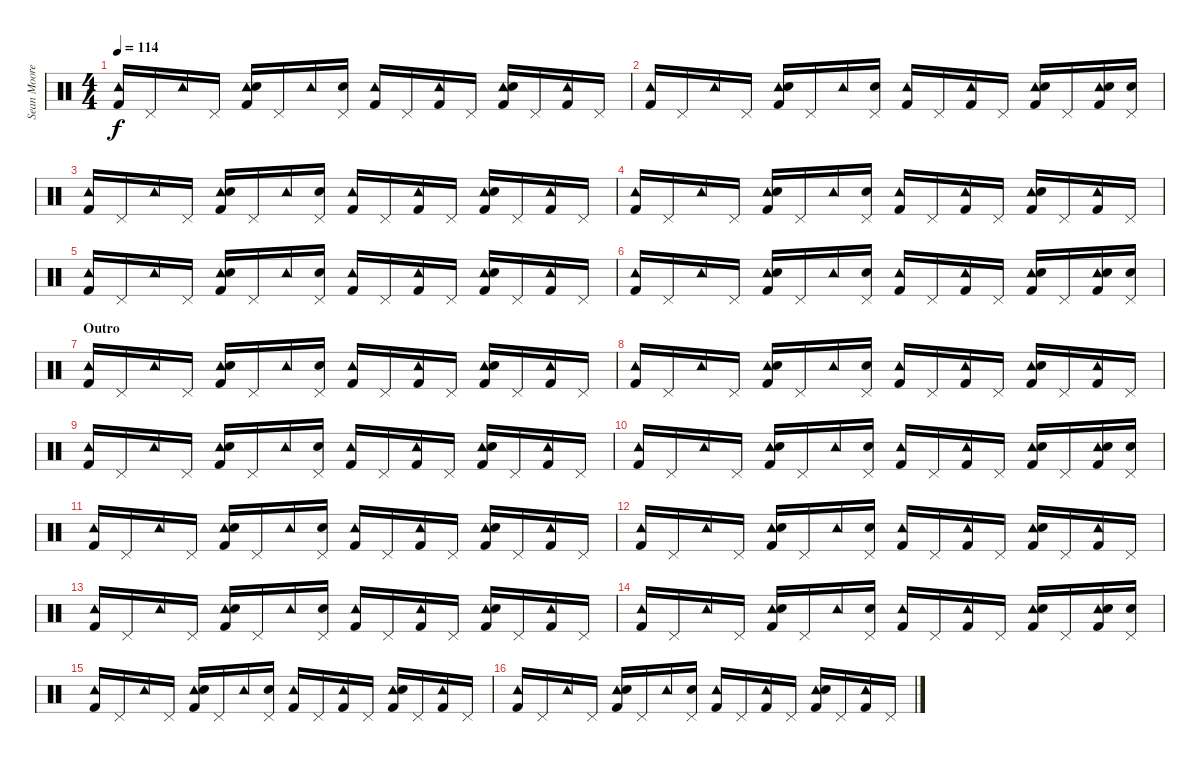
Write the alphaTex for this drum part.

\track ("Sean Moore" "Sean Moore") {instrument percussion}
\staff {score}
\articulation defaults
\ts (4 4)
\tempo 114
\clef neutral
\ks c
("Tambourine (hit)" "Kick (hit) 2").16{dy f} "Pedal Hi-Hat (hit)".16 "Tambourine (hit)".16 "Pedal Hi-Hat (hit)".16 ("Tambourine (hit)" "Snare (hit) 2" "Kick (hit) 2").16 "Pedal Hi-Hat (hit)".16 "Tambourine (hit)".16 ("Snare (hit) 2" "Pedal Hi-Hat (hit)").16 ("Tambourine (hit)" "Kick (hit) 2").16 "Pedal Hi-Hat (hit)".16 ("Tambourine (hit)" "Kick (hit) 2").16 "Pedal Hi-Hat (hit)".16 ("Tambourine (hit)" "Snare (hit) 2" "Kick (hit) 2").16 "Pedal Hi-Hat (hit)".16 ("Tambourine (hit)" "Kick (hit) 2").16 "Pedal Hi-Hat (hit)".16 |
("Tambourine (hit)" "Kick (hit) 2").16 "Pedal Hi-Hat (hit)".16 "Tambourine (hit)".16 "Pedal Hi-Hat (hit)".16 ("Tambourine (hit)" "Snare (hit) 2" "Kick (hit) 2").16 "Pedal Hi-Hat (hit)".16 "Tambourine (hit)".16 ("Snare (hit) 2" "Pedal Hi-Hat (hit)").16 ("Tambourine (hit)" "Kick (hit) 2").16 "Pedal Hi-Hat (hit)".16 ("Tambourine (hit)" "Kick (hit) 2").16 "Pedal Hi-Hat (hit)".16 ("Tambourine (hit)" "Snare (hit) 2" "Kick (hit) 2").16 "Pedal Hi-Hat (hit)".16 ("Tambourine (hit)" "Snare (hit) 2" "Kick (hit) 2").16 ("Snare (hit) 2" "Pedal Hi-Hat (hit)").16 |
("Tambourine (hit)" "Kick (hit) 2").16 "Pedal Hi-Hat (hit)".16 "Tambourine (hit)".16 "Pedal Hi-Hat (hit)".16 ("Tambourine (hit)" "Snare (hit) 2" "Kick (hit) 2").16 "Pedal Hi-Hat (hit)".16 "Tambourine (hit)".16 ("Snare (hit) 2" "Pedal Hi-Hat (hit)").16 ("Tambourine (hit)" "Kick (hit) 2").16 "Pedal Hi-Hat (hit)".16 ("Tambourine (hit)" "Kick (hit) 2").16 "Pedal Hi-Hat (hit)".16 ("Tambourine (hit)" "Snare (hit) 2" "Kick (hit) 2").16 "Pedal Hi-Hat (hit)".16 ("Tambourine (hit)" "Kick (hit) 2").16 "Pedal Hi-Hat (hit)".16 |
("Tambourine (hit)" "Kick (hit) 2").16 "Pedal Hi-Hat (hit)".16 "Tambourine (hit)".16 "Pedal Hi-Hat (hit)".16 ("Tambourine (hit)" "Snare (hit) 2" "Kick (hit) 2").16 "Pedal Hi-Hat (hit)".16 "Tambourine (hit)".16 ("Snare (hit) 2" "Pedal Hi-Hat (hit)").16 ("Tambourine (hit)" "Kick (hit) 2").16 "Pedal Hi-Hat (hit)".16 ("Tambourine (hit)" "Kick (hit) 2").16 "Pedal Hi-Hat (hit)".16 ("Tambourine (hit)" "Snare (hit) 2" "Kick (hit) 2").16 "Pedal Hi-Hat (hit)".16 ("Tambourine (hit)" "Kick (hit) 2").16 "Pedal Hi-Hat (hit)".16 |
("Tambourine (hit)" "Kick (hit) 2").16 "Pedal Hi-Hat (hit)".16 "Tambourine (hit)".16 "Pedal Hi-Hat (hit)".16 ("Tambourine (hit)" "Snare (hit) 2" "Kick (hit) 2").16 "Pedal Hi-Hat (hit)".16 "Tambourine (hit)".16 ("Snare (hit) 2" "Pedal Hi-Hat (hit)").16 ("Tambourine (hit)" "Kick (hit) 2").16 "Pedal Hi-Hat (hit)".16 ("Tambourine (hit)" "Kick (hit) 2").16 "Pedal Hi-Hat (hit)".16 ("Tambourine (hit)" "Snare (hit) 2" "Kick (hit) 2").16 "Pedal Hi-Hat (hit)".16 ("Tambourine (hit)" "Kick (hit) 2").16 "Pedal Hi-Hat (hit)".16 |
("Tambourine (hit)" "Kick (hit) 2").16 "Pedal Hi-Hat (hit)".16 "Tambourine (hit)".16 "Pedal Hi-Hat (hit)".16 ("Tambourine (hit)" "Snare (hit) 2" "Kick (hit) 2").16 "Pedal Hi-Hat (hit)".16 "Tambourine (hit)".16 ("Snare (hit) 2" "Pedal Hi-Hat (hit)").16 ("Tambourine (hit)" "Kick (hit) 2").16 "Pedal Hi-Hat (hit)".16 ("Tambourine (hit)" "Kick (hit) 2").16 "Pedal Hi-Hat (hit)".16 ("Tambourine (hit)" "Snare (hit) 2" "Kick (hit) 2").16 "Pedal Hi-Hat (hit)".16 ("Tambourine (hit)" "Snare (hit) 2" "Kick (hit) 2").16 ("Snare (hit) 2" "Pedal Hi-Hat (hit)").16 |
\section ("" "Outro")
("Tambourine (hit)" "Kick (hit) 2").16 "Pedal Hi-Hat (hit)".16 "Tambourine (hit)".16 "Pedal Hi-Hat (hit)".16 ("Tambourine (hit)" "Snare (hit) 2" "Kick (hit) 2").16 "Pedal Hi-Hat (hit)".16 "Tambourine (hit)".16 ("Snare (hit) 2" "Pedal Hi-Hat (hit)").16 ("Tambourine (hit)" "Kick (hit) 2").16 "Pedal Hi-Hat (hit)".16 ("Tambourine (hit)" "Kick (hit) 2").16 "Pedal Hi-Hat (hit)".16 ("Tambourine (hit)" "Snare (hit) 2" "Kick (hit) 2").16 "Pedal Hi-Hat (hit)".16 ("Tambourine (hit)" "Kick (hit) 2").16 "Pedal Hi-Hat (hit)".16 |
("Tambourine (hit)" "Kick (hit) 2").16 "Pedal Hi-Hat (hit)".16 "Tambourine (hit)".16 "Pedal Hi-Hat (hit)".16 ("Tambourine (hit)" "Snare (hit) 2" "Kick (hit) 2").16 "Pedal Hi-Hat (hit)".16 "Tambourine (hit)".16 ("Snare (hit) 2" "Pedal Hi-Hat (hit)").16 ("Tambourine (hit)" "Kick (hit) 2").16 "Pedal Hi-Hat (hit)".16 ("Tambourine (hit)" "Kick (hit) 2").16 "Pedal Hi-Hat (hit)".16 ("Tambourine (hit)" "Snare (hit) 2" "Kick (hit) 2").16 "Pedal Hi-Hat (hit)".16 ("Tambourine (hit)" "Kick (hit) 2").16 "Pedal Hi-Hat (hit)".16 |
("Tambourine (hit)" "Kick (hit) 2").16 "Pedal Hi-Hat (hit)".16 "Tambourine (hit)".16 "Pedal Hi-Hat (hit)".16 ("Tambourine (hit)" "Snare (hit) 2" "Kick (hit) 2").16 "Pedal Hi-Hat (hit)".16 "Tambourine (hit)".16 ("Snare (hit) 2" "Pedal Hi-Hat (hit)").16 ("Tambourine (hit)" "Kick (hit) 2").16 "Pedal Hi-Hat (hit)".16 ("Tambourine (hit)" "Kick (hit) 2").16 "Pedal Hi-Hat (hit)".16 ("Tambourine (hit)" "Snare (hit) 2" "Kick (hit) 2").16 "Pedal Hi-Hat (hit)".16 ("Tambourine (hit)" "Kick (hit) 2").16 "Pedal Hi-Hat (hit)".16 |
("Tambourine (hit)" "Kick (hit) 2").16 "Pedal Hi-Hat (hit)".16 "Tambourine (hit)".16 "Pedal Hi-Hat (hit)".16 ("Tambourine (hit)" "Snare (hit) 2" "Kick (hit) 2").16 "Pedal Hi-Hat (hit)".16 "Tambourine (hit)".16 ("Snare (hit) 2" "Pedal Hi-Hat (hit)").16 ("Tambourine (hit)" "Kick (hit) 2").16 "Pedal Hi-Hat (hit)".16 ("Tambourine (hit)" "Kick (hit) 2").16 "Pedal Hi-Hat (hit)".16 ("Tambourine (hit)" "Snare (hit) 2" "Kick (hit) 2").16 "Pedal Hi-Hat (hit)".16 ("Tambourine (hit)" "Snare (hit) 2" "Kick (hit) 2").16 ("Snare (hit) 2" "Pedal Hi-Hat (hit)").16 |
("Tambourine (hit)" "Kick (hit) 2").16 "Pedal Hi-Hat (hit)".16 "Tambourine (hit)".16 "Pedal Hi-Hat (hit)".16 ("Tambourine (hit)" "Snare (hit) 2" "Kick (hit) 2").16 "Pedal Hi-Hat (hit)".16 "Tambourine (hit)".16 ("Snare (hit) 2" "Pedal Hi-Hat (hit)").16 ("Tambourine (hit)" "Kick (hit) 2").16 "Pedal Hi-Hat (hit)".16 ("Tambourine (hit)" "Kick (hit) 2").16 "Pedal Hi-Hat (hit)".16 ("Tambourine (hit)" "Snare (hit) 2" "Kick (hit) 2").16 "Pedal Hi-Hat (hit)".16 ("Tambourine (hit)" "Kick (hit) 2").16 "Pedal Hi-Hat (hit)".16 |
("Tambourine (hit)" "Kick (hit) 2").16 "Pedal Hi-Hat (hit)".16 "Tambourine (hit)".16 "Pedal Hi-Hat (hit)".16 ("Tambourine (hit)" "Snare (hit) 2" "Kick (hit) 2").16 "Pedal Hi-Hat (hit)".16 "Tambourine (hit)".16 ("Snare (hit) 2" "Pedal Hi-Hat (hit)").16 ("Tambourine (hit)" "Kick (hit) 2").16 "Pedal Hi-Hat (hit)".16 ("Tambourine (hit)" "Kick (hit) 2").16 "Pedal Hi-Hat (hit)".16 ("Tambourine (hit)" "Snare (hit) 2" "Kick (hit) 2").16 "Pedal Hi-Hat (hit)".16 ("Tambourine (hit)" "Kick (hit) 2").16 "Pedal Hi-Hat (hit)".16 |
("Tambourine (hit)" "Kick (hit) 2").16 "Pedal Hi-Hat (hit)".16 "Tambourine (hit)".16 "Pedal Hi-Hat (hit)".16 ("Tambourine (hit)" "Snare (hit) 2" "Kick (hit) 2").16 "Pedal Hi-Hat (hit)".16 "Tambourine (hit)".16 ("Snare (hit) 2" "Pedal Hi-Hat (hit)").16 ("Tambourine (hit)" "Kick (hit) 2").16 "Pedal Hi-Hat (hit)".16 ("Tambourine (hit)" "Kick (hit) 2").16 "Pedal Hi-Hat (hit)".16 ("Tambourine (hit)" "Snare (hit) 2" "Kick (hit) 2").16 "Pedal Hi-Hat (hit)".16 ("Tambourine (hit)" "Kick (hit) 2").16 "Pedal Hi-Hat (hit)".16 |
("Tambourine (hit)" "Kick (hit) 2").16 "Pedal Hi-Hat (hit)".16 "Tambourine (hit)".16 "Pedal Hi-Hat (hit)".16 ("Tambourine (hit)" "Snare (hit) 2" "Kick (hit) 2").16 "Pedal Hi-Hat (hit)".16 "Tambourine (hit)".16 ("Snare (hit) 2" "Pedal Hi-Hat (hit)").16 ("Tambourine (hit)" "Kick (hit) 2").16 "Pedal Hi-Hat (hit)".16 ("Tambourine (hit)" "Kick (hit) 2").16 "Pedal Hi-Hat (hit)".16 ("Tambourine (hit)" "Snare (hit) 2" "Kick (hit) 2").16 "Pedal Hi-Hat (hit)".16 ("Tambourine (hit)" "Snare (hit) 2" "Kick (hit) 2").16 ("Snare (hit) 2" "Pedal Hi-Hat (hit)").16 |
("Tambourine (hit)" "Kick (hit) 2").16 "Pedal Hi-Hat (hit)".16 "Tambourine (hit)".16 "Pedal Hi-Hat (hit)".16 ("Tambourine (hit)" "Snare (hit) 2" "Kick (hit) 2").16 "Pedal Hi-Hat (hit)".16 "Tambourine (hit)".16 ("Snare (hit) 2" "Pedal Hi-Hat (hit)").16 ("Tambourine (hit)" "Kick (hit) 2").16 "Pedal Hi-Hat (hit)".16 ("Tambourine (hit)" "Kick (hit) 2").16 "Pedal Hi-Hat (hit)".16 ("Tambourine (hit)" "Snare (hit) 2" "Kick (hit) 2").16 "Pedal Hi-Hat (hit)".16 ("Tambourine (hit)" "Kick (hit) 2").16 "Pedal Hi-Hat (hit)".16 |
("Tambourine (hit)" "Kick (hit) 2").16 "Pedal Hi-Hat (hit)".16 "Tambourine (hit)".16 "Pedal Hi-Hat (hit)".16 ("Tambourine (hit)" "Snare (hit) 2" "Kick (hit) 2").16 "Pedal Hi-Hat (hit)".16 "Tambourine (hit)".16 ("Snare (hit) 2" "Pedal Hi-Hat (hit)").16 ("Tambourine (hit)" "Kick (hit) 2").16 "Pedal Hi-Hat (hit)".16 ("Tambourine (hit)" "Kick (hit) 2").16 "Pedal Hi-Hat (hit)".16 ("Tambourine (hit)" "Snare (hit) 2" "Kick (hit) 2").16 "Pedal Hi-Hat (hit)".16 ("Tambourine (hit)" "Kick (hit) 2").16 "Pedal Hi-Hat (hit)".16
